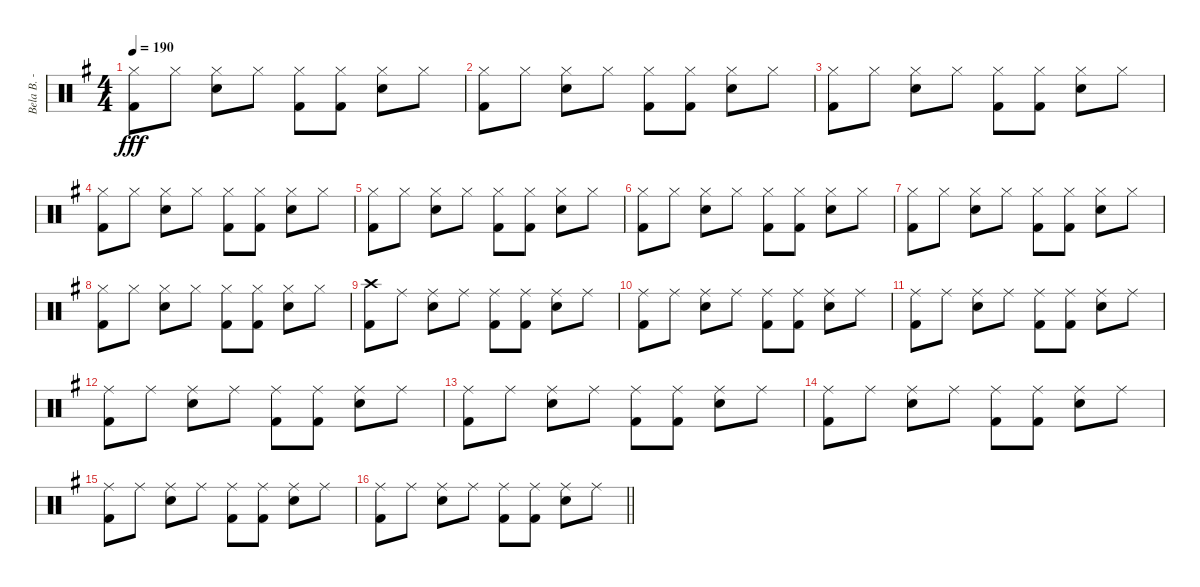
\track ("Bela B. - Drums" "Bela B. - ") {instrument percussion}
\staff {score}
\articulation defaults
\ts (4 4)
\tempo 190
\clef neutral
\ks g
("Hi-Hat (closed)" "Kick (hit) 2").8{dy fff} "Hi-Hat (closed)".8 ("Hi-Hat (closed)" "Snare (hit) 2").8 "Hi-Hat (closed)".8 ("Hi-Hat (closed)" "Kick (hit) 2").8 ("Hi-Hat (closed)" "Kick (hit) 2").8 ("Hi-Hat (closed)" "Snare (hit) 2").8 "Hi-Hat (closed)".8 |
("Hi-Hat (closed)" "Kick (hit) 2").8 "Hi-Hat (closed)".8 ("Hi-Hat (closed)" "Snare (hit) 2").8 "Hi-Hat (closed)".8 ("Hi-Hat (closed)" "Kick (hit) 2").8 ("Hi-Hat (closed)" "Kick (hit) 2").8 ("Hi-Hat (closed)" "Snare (hit) 2").8 "Hi-Hat (closed)".8 |
("Hi-Hat (closed)" "Kick (hit) 2").8 "Hi-Hat (closed)".8 ("Hi-Hat (closed)" "Snare (hit) 2").8 "Hi-Hat (closed)".8 ("Hi-Hat (closed)" "Kick (hit) 2").8 ("Hi-Hat (closed)" "Kick (hit) 2").8 ("Hi-Hat (closed)" "Snare (hit) 2").8 "Hi-Hat (closed)".8 |
("Hi-Hat (closed)" "Kick (hit) 2").8 "Hi-Hat (closed)".8 ("Hi-Hat (closed)" "Snare (hit) 2").8 "Hi-Hat (closed)".8 ("Hi-Hat (closed)" "Kick (hit) 2").8 ("Hi-Hat (closed)" "Kick (hit) 2").8 ("Hi-Hat (closed)" "Snare (hit) 2").8 "Hi-Hat (closed)".8 |
("Hi-Hat (closed)" "Kick (hit) 2").8 "Hi-Hat (closed)".8 ("Hi-Hat (closed)" "Snare (hit) 2").8 "Hi-Hat (closed)".8 ("Hi-Hat (closed)" "Kick (hit) 2").8 ("Hi-Hat (closed)" "Kick (hit) 2").8 ("Hi-Hat (closed)" "Snare (hit) 2").8 "Hi-Hat (closed)".8 |
("Hi-Hat (closed)" "Kick (hit) 2").8 "Hi-Hat (closed)".8 ("Hi-Hat (closed)" "Snare (hit) 2").8 "Hi-Hat (closed)".8 ("Hi-Hat (closed)" "Kick (hit) 2").8 ("Hi-Hat (closed)" "Kick (hit) 2").8 ("Hi-Hat (closed)" "Snare (hit) 2").8 "Hi-Hat (closed)".8 |
("Hi-Hat (closed)" "Kick (hit) 2").8 "Hi-Hat (closed)".8 ("Hi-Hat (closed)" "Snare (hit) 2").8 "Hi-Hat (closed)".8 ("Hi-Hat (closed)" "Kick (hit) 2").8 ("Hi-Hat (closed)" "Kick (hit) 2").8 ("Hi-Hat (closed)" "Snare (hit) 2").8 "Hi-Hat (closed)".8 |
("Hi-Hat (closed)" "Kick (hit) 2").8 "Hi-Hat (closed)".8 ("Hi-Hat (closed)" "Snare (hit) 2").8 "Hi-Hat (closed)".8 ("Hi-Hat (closed)" "Kick (hit) 2").8 ("Hi-Hat (closed)" "Kick (hit) 2").8 ("Hi-Hat (closed)" "Snare (hit) 2").8 "Hi-Hat (closed)".8 |
("Crash high (hit)" "Kick (hit) 2").8 "Ride (middle)".8 ("Ride (middle)" "Snare (hit) 2").8 "Ride (middle)".8 ("Ride (middle)" "Kick (hit) 2").8 ("Ride (middle)" "Kick (hit) 2").8 ("Ride (middle)" "Snare (hit) 2").8 "Ride (middle)".8 |
("Ride (middle)" "Kick (hit) 2").8 "Ride (middle)".8 ("Ride (middle)" "Snare (hit) 2").8 "Ride (middle)".8 ("Ride (middle)" "Kick (hit) 2").8 ("Ride (middle)" "Kick (hit) 2").8 ("Ride (middle)" "Snare (hit) 2").8 "Ride (middle)".8 |
("Ride (middle)" "Kick (hit) 2").8 "Ride (middle)".8 ("Ride (middle)" "Snare (hit) 2").8 "Ride (middle)".8 ("Ride (middle)" "Kick (hit) 2").8 ("Ride (middle)" "Kick (hit) 2").8 ("Ride (middle)" "Snare (hit) 2").8 "Ride (middle)".8 |
("Ride (middle)" "Kick (hit) 2").8 "Ride (middle)".8 ("Ride (middle)" "Snare (hit) 2").8 "Ride (middle)".8 ("Ride (middle)" "Kick (hit) 2").8 ("Ride (middle)" "Kick (hit) 2").8 ("Ride (middle)" "Snare (hit) 2").8 "Ride (middle)".8 |
("Ride (middle)" "Kick (hit) 2").8 "Ride (middle)".8 ("Ride (middle)" "Snare (hit) 2").8 "Ride (middle)".8 ("Ride (middle)" "Kick (hit) 2").8 ("Ride (middle)" "Kick (hit) 2").8 ("Ride (middle)" "Snare (hit) 2").8 "Ride (middle)".8 |
("Ride (middle)" "Kick (hit) 2").8 "Ride (middle)".8 ("Ride (middle)" "Snare (hit) 2").8 "Ride (middle)".8 ("Ride (middle)" "Kick (hit) 2").8 ("Ride (middle)" "Kick (hit) 2").8 ("Ride (middle)" "Snare (hit) 2").8 "Ride (middle)".8 |
("Ride (middle)" "Kick (hit) 2").8 "Ride (middle)".8 ("Ride (middle)" "Snare (hit) 2").8 "Ride (middle)".8 ("Ride (middle)" "Kick (hit) 2").8 ("Ride (middle)" "Kick (hit) 2").8 ("Ride (middle)" "Snare (hit) 2").8 "Ride (middle)".8 |
\barLineRight lightlight
("Ride (middle)" "Kick (hit) 2").8 "Ride (middle)".8 ("Ride (middle)" "Snare (hit) 2").8 "Ride (middle)".8 ("Ride (middle)" "Kick (hit) 2").8 ("Ride (middle)" "Kick (hit) 2").8 ("Ride (middle)" "Snare (hit) 2").8 "Ride (middle)".8
